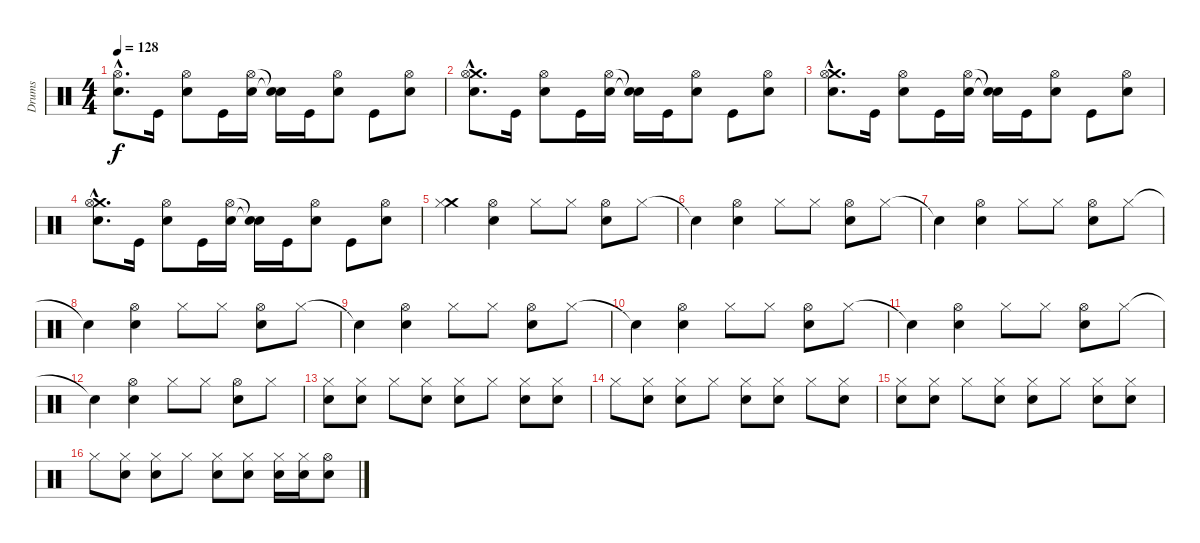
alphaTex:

\track ("Drums" "Drums") {instrument percussion}
\staff {score}
\articulation defaults
\ts (4 4)
\tempo 128
\clef neutral
\ks c
("Hi-Hat (open)"{hac} "Snare (hit) 2"{hac}).8{d dy f} "Kick (hit)".16 ("Hi-Hat (open)" "Snare (hit) 2").8 "Kick (hit)".16 ("Hi-Hat (open)" "Snare (hit) 2").16 ("Snare (hit)"{t} "Snare (hit)"{t}).16 "Kick (hit)".16 ("Hi-Hat (open)" "Snare (hit) 2").8 "Kick (hit)".8 ("Hi-Hat (open)" "Snare (hit) 2").8 |
("Crash medium (hit)"{hac} "Hi-Hat (open)"{hac} "Snare (hit) 2"{hac}).8{d} "Kick (hit)".16 ("Hi-Hat (open)" "Snare (hit) 2").8 "Kick (hit)".16 ("Hi-Hat (open)" "Snare (hit) 2").16 ("Snare (hit)"{t} "Snare (hit)"{t}).16 "Kick (hit)".16 ("Hi-Hat (open)" "Snare (hit) 2").8 "Kick (hit)".8 ("Hi-Hat (open)" "Snare (hit) 2").8 |
("Crash medium (hit)"{hac} "Hi-Hat (open)"{hac} "Snare (hit) 2"{hac}).8{d} "Kick (hit)".16 ("Hi-Hat (open)" "Snare (hit) 2").8 "Kick (hit)".16 ("Hi-Hat (open)" "Snare (hit) 2").16 ("Snare (hit)"{t} "Snare (hit)"{t}).16 "Kick (hit)".16 ("Hi-Hat (open)" "Snare (hit) 2").8 "Kick (hit)".8 ("Hi-Hat (open)" "Snare (hit) 2").8 |
("Crash medium (hit)"{hac} "Hi-Hat (open)"{hac} "Snare (hit) 2"{hac}).8{d} "Kick (hit)".16 ("Hi-Hat (open)" "Snare (hit) 2").8 "Kick (hit)".16 ("Hi-Hat (open)" "Snare (hit) 2").16 ("Snare (hit)"{t} "Snare (hit)"{t}).16 "Kick (hit)".16 ("Hi-Hat (open)" "Snare (hit) 2").8 "Kick (hit)".8 ("Hi-Hat (open)" "Snare (hit) 2").8 |
("Crash medium (hit)" "Hi-Hat (closed)").4 ("Snare (hit) 2" "Hi-Hat (open)").4 "Hi-Hat (closed)".8 "Hi-Hat (closed)".8 ("Snare (hit) 2" "Hi-Hat (open)").8 "Hi-Hat (closed)".8 |
"Snare (hit)"{t}.4 ("Snare (hit) 2" "Hi-Hat (open)").4 "Hi-Hat (closed)".8 "Hi-Hat (closed)".8 ("Snare (hit) 2" "Hi-Hat (open)").8 "Hi-Hat (closed)".8 |
"Snare (hit)"{t}.4 ("Snare (hit) 2" "Hi-Hat (open)").4 "Hi-Hat (closed)".8 "Hi-Hat (closed)".8 ("Snare (hit) 2" "Hi-Hat (open)").8 "Hi-Hat (closed)".8 |
"Snare (hit)"{t}.4 ("Snare (hit) 2" "Hi-Hat (open)").4 "Hi-Hat (closed)".8 "Hi-Hat (closed)".8 ("Snare (hit) 2" "Hi-Hat (open)").8 "Hi-Hat (closed)".8 |
"Snare (hit)"{t}.4 ("Snare (hit) 2" "Hi-Hat (open)").4 "Hi-Hat (closed)".8 "Hi-Hat (closed)".8 ("Snare (hit) 2" "Hi-Hat (open)").8 "Hi-Hat (closed)".8 |
"Snare (hit)"{t}.4 ("Snare (hit) 2" "Hi-Hat (open)").4 "Hi-Hat (closed)".8 "Hi-Hat (closed)".8 ("Snare (hit) 2" "Hi-Hat (open)").8 "Hi-Hat (closed)".8 |
"Snare (hit)"{t}.4 ("Snare (hit) 2" "Hi-Hat (open)").4 "Hi-Hat (closed)".8 "Hi-Hat (closed)".8 ("Snare (hit) 2" "Hi-Hat (open)").8 "Hi-Hat (closed)".8 |
"Snare (hit)"{t}.4 ("Snare (hit) 2" "Hi-Hat (open)").4 "Hi-Hat (closed)".8 "Hi-Hat (closed)".8 ("Snare (hit) 2" "Hi-Hat (open)").8 "Hi-Hat (closed)".8 |
("Snare (hit) 2" "Hi-Hat (closed)").8 ("Snare (hit) 2" "Hi-Hat (closed)").8 "Hi-Hat (closed)".8 ("Snare (hit) 2" "Hi-Hat (closed)").8 ("Snare (hit) 2" "Hi-Hat (closed)").8 "Hi-Hat (closed)".8 ("Snare (hit) 2" "Hi-Hat (closed)").8 ("Snare (hit) 2" "Hi-Hat (closed)").8 |
"Hi-Hat (closed)".8 ("Snare (hit) 2" "Hi-Hat (closed)").8 ("Snare (hit) 2" "Hi-Hat (closed)").8 "Hi-Hat (closed)".8 ("Snare (hit) 2" "Hi-Hat (closed)").8 ("Snare (hit) 2" "Hi-Hat (closed)").8 "Hi-Hat (closed)".8 ("Snare (hit) 2" "Hi-Hat (closed)").8 |
("Snare (hit) 2" "Hi-Hat (closed)").8 ("Snare (hit) 2" "Hi-Hat (closed)").8 "Hi-Hat (closed)".8 ("Snare (hit) 2" "Hi-Hat (closed)").8 ("Snare (hit) 2" "Hi-Hat (closed)").8 "Hi-Hat (closed)".8 ("Snare (hit) 2" "Hi-Hat (closed)").8 ("Snare (hit) 2" "Hi-Hat (closed)").8 |
"Hi-Hat (closed)".8 ("Snare (hit) 2" "Hi-Hat (closed)").8 ("Snare (hit) 2" "Hi-Hat (closed)").8 "Hi-Hat (closed)".8 ("Snare (hit) 2" "Hi-Hat (closed)").8 ("Snare (hit) 2" "Hi-Hat (closed)").8 ("Hi-Hat (closed)" "Snare (hit) 2").16 ("Hi-Hat (closed)" "Snare (hit) 2").16 ("Hi-Hat (open)" "Snare (hit) 2").8
